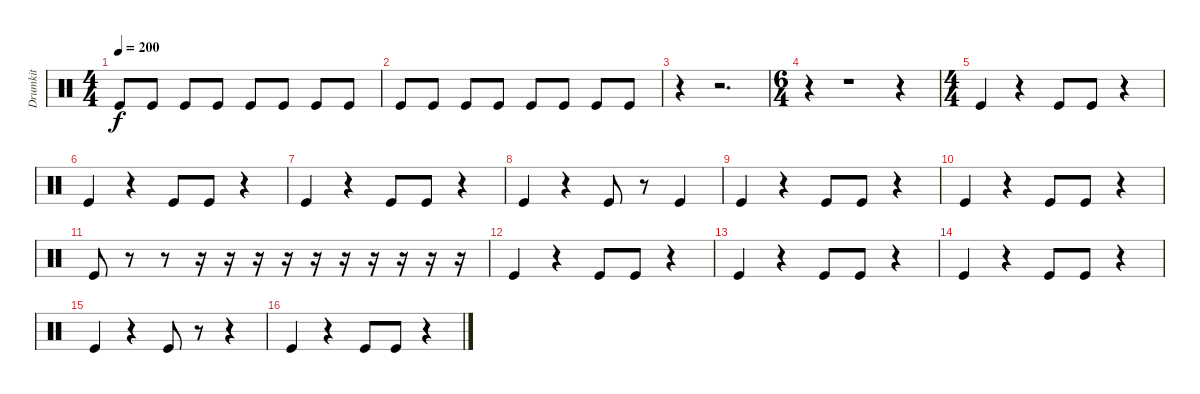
\track ("Drumkit" "Drumkit") {instrument percussion}
\staff {score}
\articulation defaults
\ts (4 4)
\tempo 200
\clef neutral
\ks c "Kick (hit)".8{dy f} "Kick (hit)".8 "Kick (hit)".8 "Kick (hit)".8 "Kick (hit)".8 "Kick (hit)".8 "Kick (hit)".8 "Kick (hit)".8
|
"Kick (hit)".8 "Kick (hit)".8 "Kick (hit)".8 "Kick (hit)".8 "Kick (hit)".8 "Kick (hit)".8 "Kick (hit)".8 "Kick (hit)".8 |
r.4 r.2{d} |
\ts (6 4)
r.4 r.1 r.4 |
\ts (4 4)
"Kick (hit)".4 r.4 "Kick (hit)".8 "Kick (hit)".8 r.4 |
"Kick (hit)".4 r.4 "Kick (hit)".8 "Kick (hit)".8 r.4 |
"Kick (hit)".4 r.4 "Kick (hit)".8 "Kick (hit)".8 r.4 |
"Kick (hit)".4 r.4 "Kick (hit)".8 r.8 "Kick (hit)".4 |
"Kick (hit)".4 r.4 "Kick (hit)".8 "Kick (hit)".8 r.4 |
"Kick (hit)".4 r.4 "Kick (hit)".8 "Kick (hit)".8 r.4 |
"Kick (hit)".8 r.8 r.8 r.16 r.16 r.16 r.16 r.16 r.16 r.16 r.16 r.16 r.16 |
"Kick (hit)".4 r.4 "Kick (hit)".8 "Kick (hit)".8 r.4 |
"Kick (hit)".4 r.4 "Kick (hit)".8 "Kick (hit)".8 r.4 |
"Kick (hit)".4 r.4 "Kick (hit)".8 "Kick (hit)".8 r.4 |
"Kick (hit)".4 r.4 "Kick (hit)".8 r.8 r.4 |
"Kick (hit)".4 r.4 "Kick (hit)".8 "Kick (hit)".8 r.4
